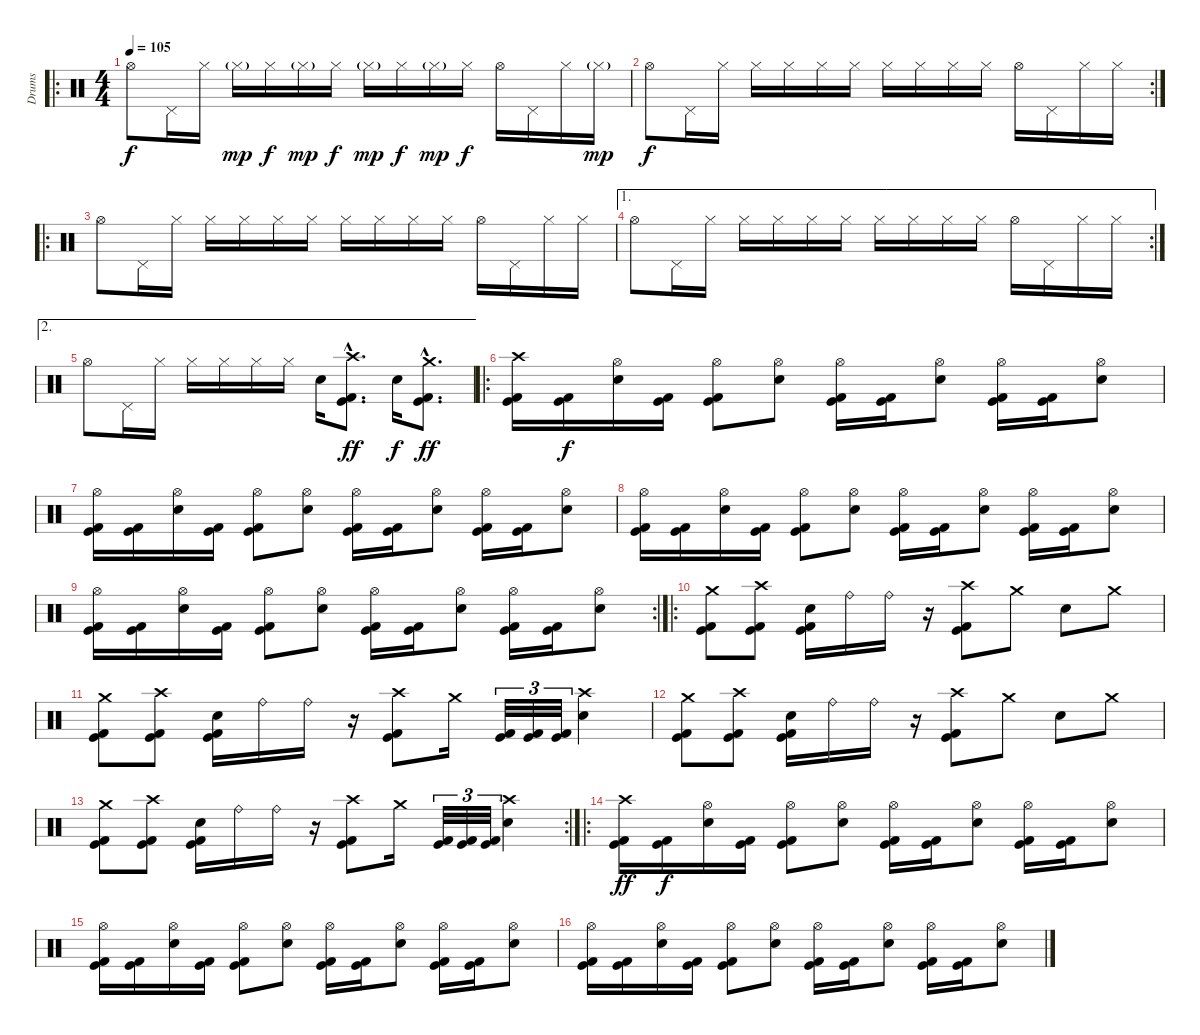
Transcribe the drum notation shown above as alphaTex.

\track ("Drums" "Drums") {instrument percussion}
\staff {score}
\articulation defaults
\ro
\ts (4 4)
\tempo 105
\clef neutral
\ks c "Hi-Hat (open)".8{dy f} "Pedal Hi-Hat (hit)".16 "Hi-Hat (closed)".16 "Hi-Hat (closed)"{g}.16{dy mp} "Hi-Hat (closed)".16{dy f} "Hi-Hat (closed)"{g}.16{dy mp} "Hi-Hat (closed)".16{dy f} "Hi-Hat (closed)"{g}.16{dy mp} "Hi-Hat (closed)".16{dy f} "Hi-Hat (closed)"{g}.16{dy mp} "Hi-Hat (closed)".16{dy f} "Hi-Hat (open)".16 "Pedal Hi-Hat (hit)".16 "Hi-Hat (closed)".16 "Hi-Hat (closed)"{g}.16{dy mp}
|
\rc 2 "Hi-Hat (open)".8{dy f} "Pedal Hi-Hat (hit)".16 "Hi-Hat (closed)".16 "Hi-Hat (closed)".16 "Hi-Hat (closed)".16 "Hi-Hat (closed)".16 "Hi-Hat (closed)".16 "Hi-Hat (closed)".16 "Hi-Hat (closed)".16 "Hi-Hat (closed)".16 "Hi-Hat (closed)".16 "Hi-Hat (open)".16 "Pedal Hi-Hat (hit)".16 "Hi-Hat (closed)".16 "Hi-Hat (closed)".16
|
\ro "Hi-Hat (open)".8 "Pedal Hi-Hat (hit)".16 "Hi-Hat (closed)".16 "Hi-Hat (closed)".16 "Hi-Hat (closed)".16 "Hi-Hat (closed)".16 "Hi-Hat (closed)".16 "Hi-Hat (closed)".16 "Hi-Hat (closed)".16 "Hi-Hat (closed)".16 "Hi-Hat (closed)".16 "Hi-Hat (open)".16 "Pedal Hi-Hat (hit)".16 "Hi-Hat (closed)".16 "Hi-Hat (closed)".16
|
\ae 1
\rc 2 "Hi-Hat (open)".8 "Pedal Hi-Hat (hit)".16 "Hi-Hat (closed)".16 "Hi-Hat (closed)".16 "Hi-Hat (closed)".16 "Hi-Hat (closed)".16 "Hi-Hat (closed)".16 "Hi-Hat (closed)".16 "Hi-Hat (closed)".16 "Hi-Hat (closed)".16 "Hi-Hat (closed)".16 "Hi-Hat (open)".16 "Pedal Hi-Hat (hit)".16 "Hi-Hat (closed)".16 "Hi-Hat (closed)".16
|
\ae 2 "Hi-Hat (open)".8 "Pedal Hi-Hat (hit)".16 "Hi-Hat (closed)".16 "Hi-Hat (closed)".16 "Hi-Hat (closed)".16 "Hi-Hat (closed)".16 "Hi-Hat (closed)".16 "Snare (hit) 2".16
("Crash high (hit)"{hac} "Kick (hit) 2"{hac} "Kick (hit)"{hac}).8{d dy ff} "Snare (hit) 2".16{dy f} ("Crash medium (hit)"{hac} "Kick (hit) 2"{hac} "Kick (hit)"{hac}).8{d dy ff} |
\ro
("Crash high (hit)" "Kick (hit) 2" "Kick (hit)").16 ("Kick (hit) 2" "Kick (hit)").16{dy f} ("Hi-Hat (open)" "Snare (hit) 2").16 ("Kick (hit) 2" "Kick (hit)").16 ("Hi-Hat (open)" "Kick (hit) 2" "Kick (hit)").8 ("Hi-Hat (open)" "Snare (hit) 2").8 ("Hi-Hat (open)" "Kick (hit) 2" "Kick (hit)").16 ("Kick (hit) 2" "Kick (hit)").16 ("Hi-Hat (open)" "Snare (hit) 2").8 ("Hi-Hat (open)" "Kick (hit) 2" "Kick (hit)").16 ("Kick (hit) 2" "Kick (hit)").16 ("Hi-Hat (open)" "Snare (hit) 2").8 |
("Hi-Hat (open)" "Kick (hit) 2" "Kick (hit)").16 ("Kick (hit) 2" "Kick (hit)").16 ("Hi-Hat (open)" "Snare (hit) 2").16 ("Kick (hit) 2" "Kick (hit)").16 ("Hi-Hat (open)" "Kick (hit) 2" "Kick (hit)").8 ("Hi-Hat (open)" "Snare (hit) 2").8 ("Hi-Hat (open)" "Kick (hit) 2" "Kick (hit)").16 ("Kick (hit) 2" "Kick (hit)").16 ("Hi-Hat (open)" "Snare (hit) 2").8 ("Hi-Hat (open)" "Kick (hit) 2" "Kick (hit)").16 ("Kick (hit) 2" "Kick (hit)").16 ("Hi-Hat (open)" "Snare (hit) 2").8 |
("Hi-Hat (open)" "Kick (hit) 2" "Kick (hit)").16 ("Kick (hit) 2" "Kick (hit)").16 ("Hi-Hat (open)" "Snare (hit) 2").16 ("Kick (hit) 2" "Kick (hit)").16 ("Hi-Hat (open)" "Kick (hit) 2" "Kick (hit)").8 ("Hi-Hat (open)" "Snare (hit) 2").8 ("Hi-Hat (open)" "Kick (hit) 2" "Kick (hit)").16 ("Kick (hit) 2" "Kick (hit)").16 ("Hi-Hat (open)" "Snare (hit) 2").8 ("Hi-Hat (open)" "Kick (hit) 2" "Kick (hit)").16 ("Kick (hit) 2" "Kick (hit)").16 ("Hi-Hat (open)" "Snare (hit) 2").8 |
\rc 2
("Hi-Hat (open)" "Kick (hit) 2" "Kick (hit)").16 ("Kick (hit) 2" "Kick (hit)").16 ("Hi-Hat (open)" "Snare (hit) 2").16 ("Kick (hit) 2" "Kick (hit)").16 ("Hi-Hat (open)" "Kick (hit) 2" "Kick (hit)").8 ("Hi-Hat (open)" "Snare (hit) 2").8 ("Hi-Hat (open)" "Kick (hit) 2" "Kick (hit)").16 ("Kick (hit) 2" "Kick (hit)").16 ("Hi-Hat (open)" "Snare (hit) 2").8 ("Hi-Hat (open)" "Kick (hit) 2" "Kick (hit)").16 ("Kick (hit) 2" "Kick (hit)").16 ("Hi-Hat (open)" "Snare (hit) 2").8 |
\ro
("Crash medium (hit)" "Kick (hit) 2" "Kick (hit)").8 ("Crash high (hit)" "Kick (hit) 2" "Kick (hit)").8 ("Snare (hit) 2" "Kick (hit) 2" "Kick (hit)").16 "Ride (bell)".16 "Ride (bell)".16 r.16 ("Crash high (hit)" "Kick (hit) 2" "Kick (hit)").8 "Crash medium (hit)".8 "Snare (hit) 2".8 "Crash medium (hit)".8 |
("Crash medium (hit)" "Kick (hit) 2" "Kick (hit)").8 ("Crash high (hit)" "Kick (hit) 2" "Kick (hit)").8 ("Snare (hit) 2" "Kick (hit) 2" "Kick (hit)").16 "Ride (bell)".16 "Ride (bell)".16 r.16 ("Crash high (hit)" "Kick (hit) 2" "Kick (hit)").8 "Crash medium (hit)".16 ("Kick (hit) 2" "Kick (hit)").32{tu (3 2)} ("Kick (hit) 2" "Kick (hit)").32{tu (3 2)} ("Kick (hit) 2" "Kick (hit)").32{tu (3 2)} ("Crash high (hit)" "Snare (hit) 2").4 |
("Crash medium (hit)" "Kick (hit) 2" "Kick (hit)").8 ("Crash high (hit)" "Kick (hit) 2" "Kick (hit)").8 ("Snare (hit) 2" "Kick (hit) 2" "Kick (hit)").16 "Ride (bell)".16 "Ride (bell)".16 r.16 ("Crash high (hit)" "Kick (hit) 2" "Kick (hit)").8 "Crash medium (hit)".8 "Snare (hit) 2".8 "Crash medium (hit)".8 |
\rc 2
("Crash medium (hit)" "Kick (hit) 2" "Kick (hit)").8 ("Crash high (hit)" "Kick (hit) 2" "Kick (hit)").8 ("Snare (hit) 2" "Kick (hit) 2" "Kick (hit)").16 "Ride (bell)".16 "Ride (bell)".16 r.16 ("Crash high (hit)" "Kick (hit) 2" "Kick (hit)").8 "Crash medium (hit)".16 ("Kick (hit) 2" "Kick (hit)").32{tu (3 2)} ("Kick (hit) 2" "Kick (hit)").32{tu (3 2)} ("Kick (hit) 2" "Kick (hit)").32{tu (3 2)} ("Crash high (hit)" "Snare (hit) 2").4 |
\ro
("Crash high (hit)" "Kick (hit) 2" "Kick (hit)").16{dy ff} ("Kick (hit) 2" "Kick (hit)").16{dy f} ("Hi-Hat (open)" "Snare (hit) 2").16 ("Kick (hit) 2" "Kick (hit)").16 ("Hi-Hat (open)" "Kick (hit) 2" "Kick (hit)").8 ("Hi-Hat (open)" "Snare (hit) 2").8 ("Hi-Hat (open)" "Kick (hit) 2" "Kick (hit)").16 ("Kick (hit) 2" "Kick (hit)").16 ("Hi-Hat (open)" "Snare (hit) 2").8 ("Hi-Hat (open)" "Kick (hit) 2" "Kick (hit)").16 ("Kick (hit) 2" "Kick (hit)").16 ("Hi-Hat (open)" "Snare (hit) 2").8 |
("Hi-Hat (open)" "Kick (hit) 2" "Kick (hit)").16 ("Kick (hit) 2" "Kick (hit)").16 ("Hi-Hat (open)" "Snare (hit) 2").16 ("Kick (hit) 2" "Kick (hit)").16 ("Hi-Hat (open)" "Kick (hit) 2" "Kick (hit)").8 ("Hi-Hat (open)" "Snare (hit) 2").8 ("Hi-Hat (open)" "Kick (hit) 2" "Kick (hit)").16 ("Kick (hit) 2" "Kick (hit)").16 ("Hi-Hat (open)" "Snare (hit) 2").8 ("Hi-Hat (open)" "Kick (hit) 2" "Kick (hit)").16 ("Kick (hit) 2" "Kick (hit)").16 ("Hi-Hat (open)" "Snare (hit) 2").8 |
("Hi-Hat (open)" "Kick (hit) 2" "Kick (hit)").16 ("Kick (hit) 2" "Kick (hit)").16 ("Hi-Hat (open)" "Snare (hit) 2").16 ("Kick (hit) 2" "Kick (hit)").16 ("Hi-Hat (open)" "Kick (hit) 2" "Kick (hit)").8 ("Hi-Hat (open)" "Snare (hit) 2").8 ("Hi-Hat (open)" "Kick (hit) 2" "Kick (hit)").16 ("Kick (hit) 2" "Kick (hit)").16 ("Hi-Hat (open)" "Snare (hit) 2").8 ("Hi-Hat (open)" "Kick (hit) 2" "Kick (hit)").16 ("Kick (hit) 2" "Kick (hit)").16 ("Hi-Hat (open)" "Snare (hit) 2").8
